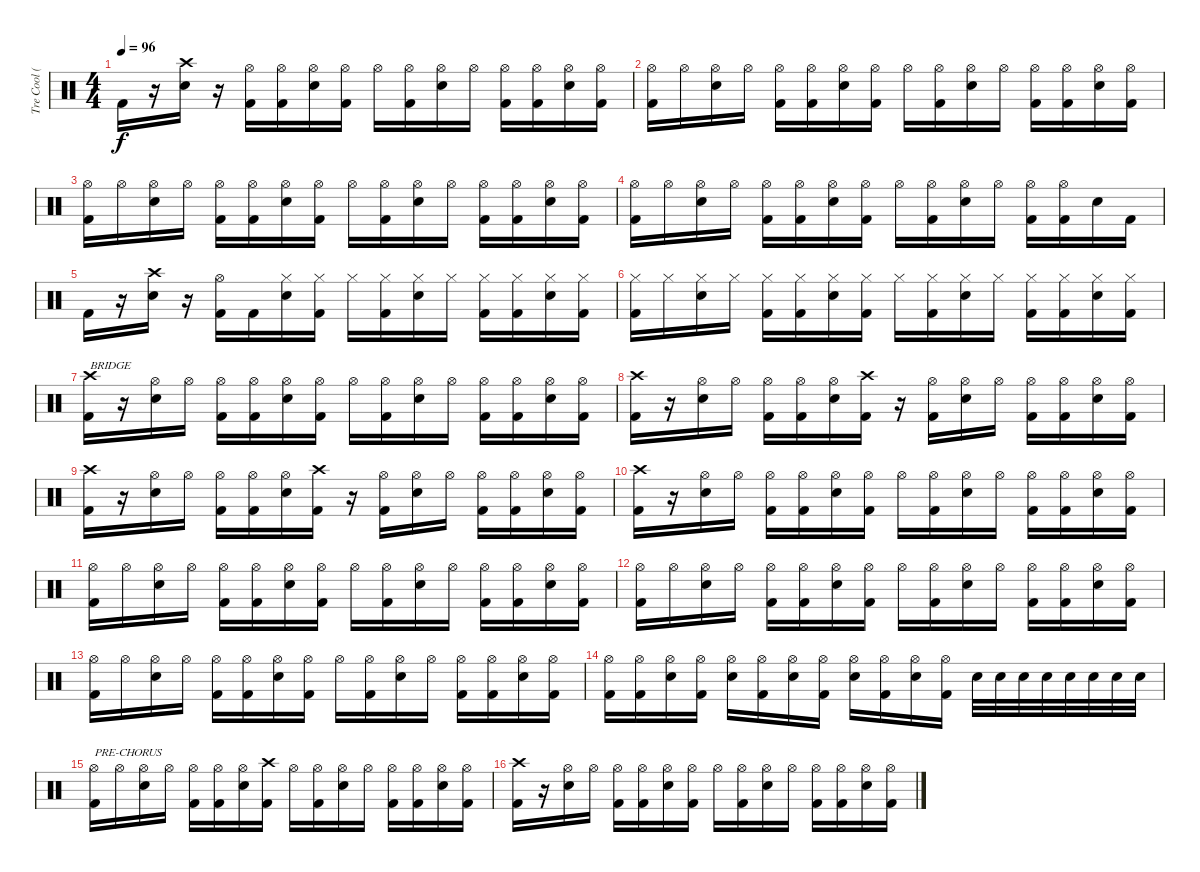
\track ("Tre Cool (Drums)" "Tre Cool (") {instrument percussion}
\staff {score}
\articulation defaults
\ts (4 4)
\tempo 96
\clef neutral
\ks c "Kick (hit) 2".16{dy f}
r.16 ("Crash high (hit)" "Electric Snare (hit)").16 r.16 ("Hi-Hat (open)" "Kick (hit) 2").16 ("Hi-Hat (open)" "Kick (hit) 2").16 ("Hi-Hat (open)" "Electric Snare (hit)").16 ("Hi-Hat (open)" "Kick (hit) 2").16 "Hi-Hat (open)".16 ("Hi-Hat (open)" "Kick (hit) 2").16 ("Hi-Hat (open)" "Electric Snare (hit)").16 "Hi-Hat (open)".16 ("Hi-Hat (open)" "Kick (hit) 2").16 ("Hi-Hat (open)" "Kick (hit) 2").16 ("Hi-Hat (open)" "Electric Snare (hit)").16 ("Hi-Hat (open)" "Kick (hit) 2").16 |
("Hi-Hat (open)" "Kick (hit) 2").16 "Hi-Hat (open)".16 ("Hi-Hat (open)" "Electric Snare (hit)").16 "Hi-Hat (open)".16 ("Hi-Hat (open)" "Kick (hit) 2").16 ("Hi-Hat (open)" "Kick (hit) 2").16 ("Hi-Hat (open)" "Electric Snare (hit)").16 ("Hi-Hat (open)" "Kick (hit) 2").16 "Hi-Hat (open)".16 ("Hi-Hat (open)" "Kick (hit) 2").16 ("Hi-Hat (open)" "Electric Snare (hit)").16 "Hi-Hat (open)".16 ("Hi-Hat (open)" "Kick (hit) 2").16 ("Hi-Hat (open)" "Kick (hit) 2").16 ("Hi-Hat (open)" "Electric Snare (hit)").16 ("Hi-Hat (open)" "Kick (hit) 2").16 |
("Hi-Hat (open)" "Kick (hit) 2").16 "Hi-Hat (open)".16 ("Hi-Hat (open)" "Electric Snare (hit)").16 "Hi-Hat (open)".16 ("Hi-Hat (open)" "Kick (hit) 2").16 ("Hi-Hat (open)" "Kick (hit) 2").16 ("Hi-Hat (open)" "Electric Snare (hit)").16 ("Hi-Hat (open)" "Kick (hit) 2").16 "Hi-Hat (open)".16 ("Hi-Hat (open)" "Kick (hit) 2").16 ("Hi-Hat (open)" "Electric Snare (hit)").16 "Hi-Hat (open)".16 ("Hi-Hat (open)" "Kick (hit) 2").16 ("Hi-Hat (open)" "Kick (hit) 2").16 ("Hi-Hat (open)" "Electric Snare (hit)").16 ("Hi-Hat (open)" "Kick (hit) 2").16 |
("Hi-Hat (open)" "Kick (hit) 2").16 "Hi-Hat (open)".16 ("Hi-Hat (open)" "Electric Snare (hit)").16 "Hi-Hat (open)".16 ("Hi-Hat (open)" "Kick (hit) 2").16 ("Hi-Hat (open)" "Kick (hit) 2").16 ("Hi-Hat (open)" "Electric Snare (hit)").16 ("Hi-Hat (open)" "Kick (hit) 2").16 "Hi-Hat (open)".16 ("Hi-Hat (open)" "Kick (hit) 2").16 ("Hi-Hat (open)" "Electric Snare (hit)").16 "Hi-Hat (open)".16 ("Hi-Hat (open)" "Kick (hit) 2").16 ("Hi-Hat (open)" "Kick (hit) 2").16 "Electric Snare (hit)".16 "Kick (hit) 2".16 |
"Kick (hit) 2".16 r.16 ("Crash high (hit)" "Electric Snare (hit)").16 r.16 ("Hi-Hat (open)" "Kick (hit) 2").16 "Kick (hit) 2".16 ("Hi-Hat (closed)" "Electric Snare (hit)").16 ("Hi-Hat (closed)" "Kick (hit) 2").16 "Hi-Hat (closed)".16 ("Hi-Hat (closed)" "Kick (hit) 2").16 ("Hi-Hat (closed)" "Electric Snare (hit)").16 "Hi-Hat (closed)".16 ("Hi-Hat (closed)" "Kick (hit) 2").16 ("Hi-Hat (closed)" "Kick (hit) 2").16 ("Hi-Hat (closed)" "Electric Snare (hit)").16 ("Hi-Hat (closed)" "Kick (hit) 2").16 |
("Hi-Hat (closed)" "Kick (hit) 2").16 "Hi-Hat (closed)".16 ("Hi-Hat (closed)" "Electric Snare (hit)").16 "Hi-Hat (closed)".16 ("Hi-Hat (closed)" "Kick (hit) 2").16 ("Hi-Hat (closed)" "Kick (hit) 2").16 ("Hi-Hat (closed)" "Electric Snare (hit)").16 ("Hi-Hat (closed)" "Kick (hit) 2").16 "Hi-Hat (closed)".16 ("Hi-Hat (closed)" "Kick (hit) 2").16 ("Hi-Hat (closed)" "Electric Snare (hit)").16 "Hi-Hat (closed)".16 ("Hi-Hat (closed)" "Kick (hit) 2").16 ("Hi-Hat (closed)" "Kick (hit) 2").16 ("Hi-Hat (closed)" "Electric Snare (hit)").16 ("Hi-Hat (closed)" "Kick (hit) 2").16 |
("Crash high (hit)" "Kick (hit) 2").16{txt "BRIDGE"} r.16 ("Hi-Hat (open)" "Electric Snare (hit)").16 "Hi-Hat (open)".16 ("Hi-Hat (open)" "Kick (hit) 2").16 ("Hi-Hat (open)" "Kick (hit) 2").16 ("Hi-Hat (open)" "Electric Snare (hit)").16 ("Hi-Hat (open)" "Kick (hit) 2").16 "Hi-Hat (open)".16 ("Hi-Hat (open)" "Kick (hit) 2").16 ("Hi-Hat (open)" "Electric Snare (hit)").16 "Hi-Hat (open)".16 ("Hi-Hat (open)" "Kick (hit) 2").16 ("Hi-Hat (open)" "Kick (hit) 2").16 ("Hi-Hat (open)" "Electric Snare (hit)").16 ("Hi-Hat (open)" "Kick (hit) 2").16 |
("Crash high (hit)" "Kick (hit) 2").16 r.16 ("Hi-Hat (open)" "Electric Snare (hit)").16 "Hi-Hat (open)".16 ("Hi-Hat (open)" "Kick (hit) 2").16 ("Hi-Hat (open)" "Kick (hit) 2").16 ("Hi-Hat (open)" "Electric Snare (hit)").16 ("Crash high (hit)" "Kick (hit) 2").16 r.16 ("Hi-Hat (open)" "Kick (hit) 2").16 ("Hi-Hat (open)" "Electric Snare (hit)").16 "Hi-Hat (open)".16 ("Hi-Hat (open)" "Kick (hit) 2").16 ("Hi-Hat (open)" "Kick (hit) 2").16 ("Hi-Hat (open)" "Electric Snare (hit)").16 ("Hi-Hat (open)" "Kick (hit) 2").16 |
("Crash high (hit)" "Kick (hit) 2").16 r.16 ("Hi-Hat (open)" "Electric Snare (hit)").16 "Hi-Hat (open)".16 ("Hi-Hat (open)" "Kick (hit) 2").16 ("Hi-Hat (open)" "Kick (hit) 2").16 ("Hi-Hat (open)" "Electric Snare (hit)").16 ("Crash high (hit)" "Kick (hit) 2").16 r.16 ("Hi-Hat (open)" "Kick (hit) 2").16 ("Hi-Hat (open)" "Electric Snare (hit)").16 "Hi-Hat (open)".16 ("Hi-Hat (open)" "Kick (hit) 2").16 ("Hi-Hat (open)" "Kick (hit) 2").16 ("Hi-Hat (open)" "Electric Snare (hit)").16 ("Hi-Hat (open)" "Kick (hit) 2").16 |
("Crash high (hit)" "Kick (hit) 2").16 r.16 ("Hi-Hat (open)" "Electric Snare (hit)").16 "Hi-Hat (open)".16 ("Hi-Hat (open)" "Kick (hit) 2").16 ("Hi-Hat (open)" "Kick (hit) 2").16 ("Hi-Hat (open)" "Electric Snare (hit)").16 ("Hi-Hat (open)" "Kick (hit) 2").16 "Hi-Hat (open)".16 ("Hi-Hat (open)" "Kick (hit) 2").16 ("Hi-Hat (open)" "Electric Snare (hit)").16 "Hi-Hat (open)".16 ("Hi-Hat (open)" "Kick (hit) 2").16 ("Hi-Hat (open)" "Kick (hit) 2").16 ("Hi-Hat (open)" "Electric Snare (hit)").16 ("Hi-Hat (open)" "Kick (hit) 2").16 |
("Hi-Hat (open)" "Kick (hit) 2").16 "Hi-Hat (open)".16 ("Hi-Hat (open)" "Electric Snare (hit)").16 "Hi-Hat (open)".16 ("Hi-Hat (open)" "Kick (hit) 2").16 ("Hi-Hat (open)" "Kick (hit) 2").16 ("Hi-Hat (open)" "Electric Snare (hit)").16 ("Hi-Hat (open)" "Kick (hit) 2").16 "Hi-Hat (open)".16 ("Hi-Hat (open)" "Kick (hit) 2").16 ("Hi-Hat (open)" "Electric Snare (hit)").16 "Hi-Hat (open)".16 ("Hi-Hat (open)" "Kick (hit) 2").16 ("Hi-Hat (open)" "Kick (hit) 2").16 ("Hi-Hat (open)" "Electric Snare (hit)").16 ("Hi-Hat (open)" "Kick (hit) 2").16 |
("Hi-Hat (open)" "Kick (hit) 2").16 "Hi-Hat (open)".16 ("Hi-Hat (open)" "Electric Snare (hit)").16 "Hi-Hat (open)".16 ("Hi-Hat (open)" "Kick (hit) 2").16 ("Hi-Hat (open)" "Kick (hit) 2").16 ("Hi-Hat (open)" "Electric Snare (hit)").16 ("Hi-Hat (open)" "Kick (hit) 2").16 "Hi-Hat (open)".16 ("Hi-Hat (open)" "Kick (hit) 2").16 ("Hi-Hat (open)" "Electric Snare (hit)").16 "Hi-Hat (open)".16 ("Hi-Hat (open)" "Kick (hit) 2").16 ("Hi-Hat (open)" "Kick (hit) 2").16 ("Hi-Hat (open)" "Electric Snare (hit)").16 ("Hi-Hat (open)" "Kick (hit) 2").16 |
("Hi-Hat (open)" "Kick (hit) 2").16 "Hi-Hat (open)".16 ("Hi-Hat (open)" "Electric Snare (hit)").16 "Hi-Hat (open)".16 ("Hi-Hat (open)" "Kick (hit) 2").16 ("Hi-Hat (open)" "Kick (hit) 2").16 ("Hi-Hat (open)" "Electric Snare (hit)").16 ("Hi-Hat (open)" "Kick (hit) 2").16 "Hi-Hat (open)".16 ("Hi-Hat (open)" "Kick (hit) 2").16 ("Hi-Hat (open)" "Electric Snare (hit)").16 "Hi-Hat (open)".16 ("Hi-Hat (open)" "Kick (hit) 2").16 ("Hi-Hat (open)" "Kick (hit) 2").16 ("Hi-Hat (open)" "Electric Snare (hit)").16 ("Hi-Hat (open)" "Kick (hit) 2").16 |
("Hi-Hat (open)" "Kick (hit) 2").16 ("Hi-Hat (open)" "Kick (hit) 2").16 ("Hi-Hat (open)" "Electric Snare (hit)").16 ("Hi-Hat (open)" "Kick (hit) 2").16 ("Hi-Hat (open)" "Electric Snare (hit)").16 ("Hi-Hat (open)" "Kick (hit) 2").16 ("Hi-Hat (open)" "Electric Snare (hit)").16 ("Hi-Hat (open)" "Kick (hit) 2").16 ("Hi-Hat (open)" "Electric Snare (hit)").16 ("Hi-Hat (open)" "Kick (hit) 2").16 ("Hi-Hat (open)" "Electric Snare (hit)").16 ("Hi-Hat (open)" "Kick (hit) 2").16 "Electric Snare (hit)".32 "Electric Snare (hit)".32 "Electric Snare (hit)".32 "Electric Snare (hit)".32 "Electric Snare (hit)".32 "Electric Snare (hit)".32 "Electric Snare (hit)".32 "Electric Snare (hit)".32 |
("Hi-Hat (open)" "Kick (hit) 2").16{txt "PRE-CHORUS"} "Hi-Hat (open)".16 ("Hi-Hat (open)" "Electric Snare (hit)").16 "Hi-Hat (open)".16 ("Hi-Hat (open)" "Kick (hit) 2").16 ("Hi-Hat (open)" "Kick (hit) 2").16 ("Hi-Hat (open)" "Electric Snare (hit)").16 ("Crash high (hit)" "Kick (hit) 2").16 "Hi-Hat (open)".16 ("Hi-Hat (open)" "Kick (hit) 2").16 ("Hi-Hat (open)" "Electric Snare (hit)").16 "Hi-Hat (open)".16 ("Hi-Hat (open)" "Kick (hit) 2").16 ("Hi-Hat (open)" "Kick (hit) 2").16 ("Hi-Hat (open)" "Electric Snare (hit)").16 ("Hi-Hat (open)" "Kick (hit) 2").16 |
("Crash high (hit)" "Kick (hit) 2").16 r.16 ("Hi-Hat (open)" "Electric Snare (hit)").16 "Hi-Hat (open)".16 ("Hi-Hat (open)" "Kick (hit) 2").16 ("Hi-Hat (open)" "Kick (hit) 2").16 ("Hi-Hat (open)" "Electric Snare (hit)").16 ("Hi-Hat (open)" "Kick (hit) 2").16 "Hi-Hat (open)".16 ("Hi-Hat (open)" "Kick (hit) 2").16 ("Hi-Hat (open)" "Electric Snare (hit)").16 "Hi-Hat (open)".16 ("Hi-Hat (open)" "Kick (hit) 2").16 ("Hi-Hat (open)" "Kick (hit) 2").16 ("Hi-Hat (open)" "Electric Snare (hit)").16 ("Hi-Hat (open)" "Kick (hit) 2").16
